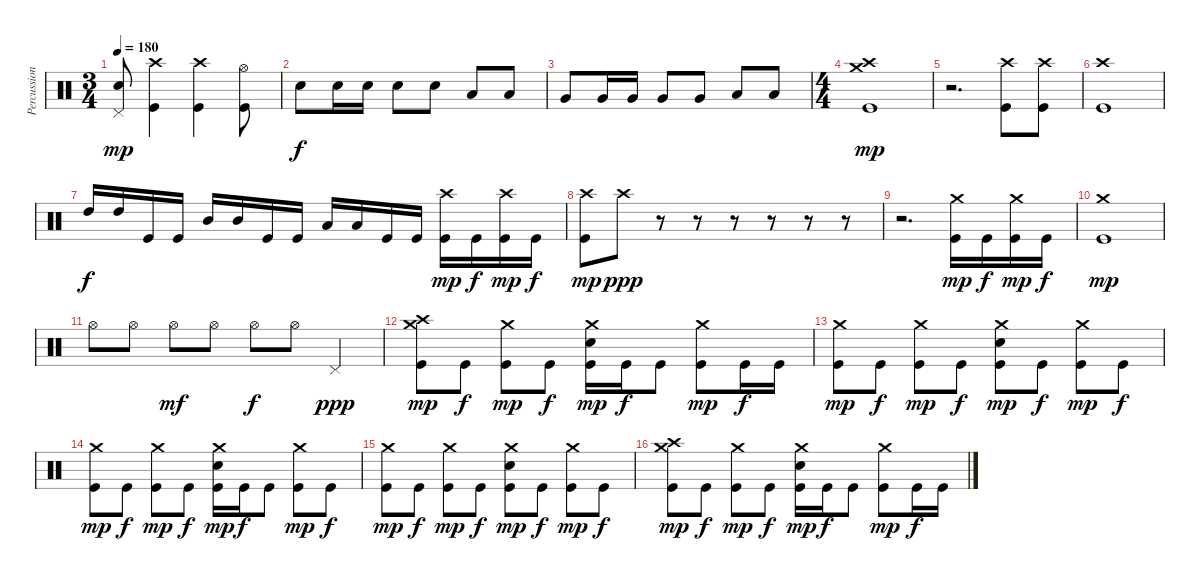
\track ("Percussion" "Percussion") {instrument percussion}
\staff {score}
\articulation defaults
\ts (3 4)
\tempo 180
\clef neutral
\ks c
("Pedal Hi-Hat (hit)" "Electric Snare (hit)").8{dy mp} ("Crash high (hit)" "Kick (hit)").4 ("Crash high (hit)" "Kick (hit)").4 ("Hi-Hat (open)" "Kick (hit)").8 |
"Electric Snare (hit)".8{dy f} "Electric Snare (hit)".16 "Electric Snare (hit)".16 "Electric Snare (hit)".8 "Electric Snare (hit)".8 "Low Tom (hit)".8 "Low Tom (hit)".8 |
"Very Low Tom (hit)".8 "Very Low Tom (hit)".16 "Very Low Tom (hit)".16 "Very Low Tom (hit)".8 "Very Low Tom (hit)".8 "Low Floor Tom (hit)".8 "Low Floor Tom (hit)".8 |
\ts (4 4)
("Crash high (hit)" "Crash medium (hit)" "Kick (hit)").1{dy mp} |
r.2{d} ("Crash high (hit)" "Kick (hit)").8 ("Crash high (hit)" "Kick (hit)").8 |
("Crash high (hit)" "Kick (hit)").1 |
"High Tom (hit)".16{dy f} "High Tom (hit)".16 "Kick (hit)".16 "Kick (hit)".16 "Mid Tom (hit)".16 "Mid Tom (hit)".16 "Kick (hit)".16 "Kick (hit)".16 "Low Tom (hit)".16 "Low Tom (hit)".16 "Kick (hit)".16 "Kick (hit)".16 ("Crash high (hit)" "Kick (hit)").16{dy mp} "Kick (hit)".16{dy f} ("Crash high (hit)" "Kick (hit)").16{dy mp} "Kick (hit)".16{dy f} |
("Crash high (hit)" "Kick (hit)").8{dy mp} "Crash high (hit)".8{dy ppp} r.8 r.8 r.8 r.8 r.8 r.8 |
r.2{d} ("Crash medium (hit)" "Kick (hit)").16{dy mp} "Kick (hit)".16{dy f} ("Crash medium (hit)" "Kick (hit)").16{dy mp} "Kick (hit)".16{dy f} |
("Crash medium (hit)" "Kick (hit)").1{dy mp} |
"Hi-Hat (open)".8 "Hi-Hat (open)".8 "Hi-Hat (open)".8{dy mf} "Hi-Hat (open)".8 "Hi-Hat (open)".8{dy f} "Hi-Hat (open)".8 "Pedal Hi-Hat (hit)".4{dy ppp} |
("Crash high (hit)" "Crash medium (hit)" "Kick (hit)").8{dy mp} "Kick (hit)".8{dy f} ("Crash medium (hit)" "Kick (hit)").8{dy mp} "Kick (hit)".8{dy f} ("Crash medium (hit)" "Electric Snare (hit)" "Kick (hit)").16{dy mp} "Kick (hit)".16{dy f} "Kick (hit)".8 ("Crash medium (hit)" "Kick (hit)").8{dy mp} "Kick (hit)".16{dy f} "Kick (hit)".16 |
("Crash medium (hit)" "Kick (hit)").8{dy mp} "Kick (hit)".8{dy f} ("Crash medium (hit)" "Kick (hit)").8{dy mp} "Kick (hit)".8{dy f} ("Crash medium (hit)" "Electric Snare (hit)" "Kick (hit)").8{dy mp} "Kick (hit)".8{dy f} ("Crash medium (hit)" "Kick (hit)").8{dy mp} "Kick (hit)".8{dy f} |
("Crash medium (hit)" "Kick (hit)").8{dy mp} "Kick (hit)".8{dy f} ("Crash medium (hit)" "Kick (hit)").8{dy mp} "Kick (hit)".8{dy f} ("Crash medium (hit)" "Electric Snare (hit)" "Kick (hit)").16{dy mp} "Kick (hit)".16{dy f} "Kick (hit)".8 ("Crash medium (hit)" "Kick (hit)").8{dy mp} "Kick (hit)".8{dy f} |
("Crash medium (hit)" "Kick (hit)").8{dy mp} "Kick (hit)".8{dy f} ("Crash medium (hit)" "Kick (hit)").8{dy mp} "Kick (hit)".8{dy f} ("Crash medium (hit)" "Electric Snare (hit)" "Kick (hit)").8{dy mp} "Kick (hit)".8{dy f} ("Crash medium (hit)" "Kick (hit)").8{dy mp} "Kick (hit)".8{dy f} |
("Crash high (hit)" "Crash medium (hit)" "Kick (hit)").8{dy mp} "Kick (hit)".8{dy f} ("Crash medium (hit)" "Kick (hit)").8{dy mp} "Kick (hit)".8{dy f} ("Crash medium (hit)" "Electric Snare (hit)" "Kick (hit)").16{dy mp} "Kick (hit)".16{dy f} "Kick (hit)".8 ("Crash medium (hit)" "Kick (hit)").8{dy mp} "Kick (hit)".16{dy f} "Kick (hit)".16
